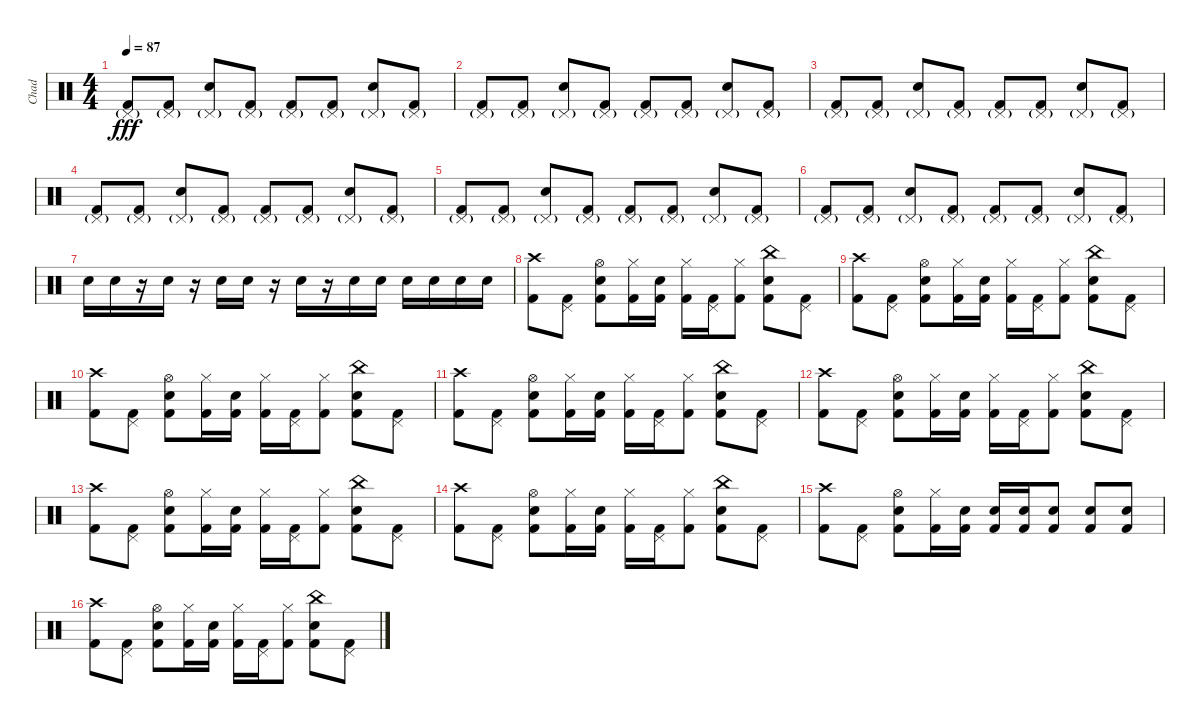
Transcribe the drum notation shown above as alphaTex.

\track ("Chad" "Chad") {instrument percussion}
\staff {score}
\articulation defaults
\ts (4 4)
\tempo 87
\clef neutral
\ks c
("Pedal Hi-Hat (hit)"{g} "Kick (hit) 2").8{dy fff} ("Pedal Hi-Hat (hit)"{g} "Kick (hit) 2").8 ("Pedal Hi-Hat (hit)"{g} "Snare (hit) 2").8 ("Pedal Hi-Hat (hit)"{g} "Kick (hit) 2").8 ("Pedal Hi-Hat (hit)"{g} "Kick (hit) 2").8 ("Pedal Hi-Hat (hit)"{g} "Kick (hit) 2").8 ("Pedal Hi-Hat (hit)"{g} "Snare (hit) 2").8 ("Pedal Hi-Hat (hit)"{g} "Kick (hit) 2").8 |
("Pedal Hi-Hat (hit)"{g} "Kick (hit) 2").8 ("Pedal Hi-Hat (hit)"{g} "Kick (hit) 2").8 ("Pedal Hi-Hat (hit)"{g} "Snare (hit) 2").8 ("Pedal Hi-Hat (hit)"{g} "Kick (hit) 2").8 ("Pedal Hi-Hat (hit)"{g} "Kick (hit) 2").8 ("Pedal Hi-Hat (hit)"{g} "Kick (hit) 2").8 ("Pedal Hi-Hat (hit)"{g} "Snare (hit) 2").8 ("Pedal Hi-Hat (hit)"{g} "Kick (hit) 2").8 |
("Pedal Hi-Hat (hit)"{g} "Kick (hit) 2").8 ("Pedal Hi-Hat (hit)"{g} "Kick (hit) 2").8 ("Pedal Hi-Hat (hit)"{g} "Snare (hit) 2").8 ("Pedal Hi-Hat (hit)"{g} "Kick (hit) 2").8 ("Pedal Hi-Hat (hit)"{g} "Kick (hit) 2").8 ("Pedal Hi-Hat (hit)"{g} "Kick (hit) 2").8 ("Pedal Hi-Hat (hit)"{g} "Snare (hit) 2").8 ("Pedal Hi-Hat (hit)"{g} "Kick (hit) 2").8 |
("Pedal Hi-Hat (hit)"{g} "Kick (hit) 2").8 ("Pedal Hi-Hat (hit)"{g} "Kick (hit) 2").8 ("Pedal Hi-Hat (hit)"{g} "Snare (hit) 2").8 ("Pedal Hi-Hat (hit)"{g} "Kick (hit) 2").8 ("Pedal Hi-Hat (hit)"{g} "Kick (hit) 2").8 ("Pedal Hi-Hat (hit)"{g} "Kick (hit) 2").8 ("Pedal Hi-Hat (hit)"{g} "Snare (hit) 2").8 ("Pedal Hi-Hat (hit)"{g} "Kick (hit) 2").8 |
("Pedal Hi-Hat (hit)"{g} "Kick (hit) 2").8 ("Pedal Hi-Hat (hit)"{g} "Kick (hit) 2").8 ("Pedal Hi-Hat (hit)"{g} "Snare (hit) 2").8 ("Pedal Hi-Hat (hit)"{g} "Kick (hit) 2").8 ("Pedal Hi-Hat (hit)"{g} "Kick (hit) 2").8 ("Pedal Hi-Hat (hit)"{g} "Kick (hit) 2").8 ("Pedal Hi-Hat (hit)"{g} "Snare (hit) 2").8 ("Pedal Hi-Hat (hit)"{g} "Kick (hit) 2").8 |
("Pedal Hi-Hat (hit)"{g} "Kick (hit) 2").8 ("Pedal Hi-Hat (hit)"{g} "Kick (hit) 2").8 ("Pedal Hi-Hat (hit)"{g} "Snare (hit) 2").8 ("Pedal Hi-Hat (hit)"{g} "Kick (hit) 2").8 ("Pedal Hi-Hat (hit)"{g} "Kick (hit) 2").8 ("Pedal Hi-Hat (hit)"{g} "Kick (hit) 2").8 ("Pedal Hi-Hat (hit)"{g} "Snare (hit) 2").8 ("Pedal Hi-Hat (hit)"{g} "Kick (hit) 2").8 |
"Snare (hit) 2".16 "Snare (hit) 2".16 r.16 "Snare (hit) 2".16 r.16 "Snare (hit) 2".16 "Snare (hit) 2".16 r.16 "Snare (hit) 2".16 r.16 "Snare (hit) 2".16 "Snare (hit) 2".16 "Snare (hit) 2".16 "Snare (hit) 2".16 "Snare (hit) 2".16 "Snare (hit) 2".16 |
("Crash high (hit)" "Kick (hit) 2").8 ("Pedal Hi-Hat (hit)" "Kick (hit) 2").8 ("Hi-Hat (open)" "Snare (hit) 2" "Kick (hit) 2").8 ("Hi-Hat (closed)" "Kick (hit) 2").16 ("Snare (hit) 2" "Kick (hit) 2").16 ("Hi-Hat (closed)" "Kick (hit) 2").16 ("Pedal Hi-Hat (hit)" "Kick (hit) 2").16 ("Hi-Hat (closed)" "Kick (hit) 2").8 ("China (hit)" "Snare (hit) 2" "Kick (hit) 2").8 ("Pedal Hi-Hat (hit)" "Kick (hit) 2").8 |
("Crash high (hit)" "Kick (hit) 2").8 ("Pedal Hi-Hat (hit)" "Kick (hit) 2").8 ("Hi-Hat (open)" "Snare (hit) 2" "Kick (hit) 2").8 ("Hi-Hat (closed)" "Kick (hit) 2").16 ("Snare (hit) 2" "Kick (hit) 2").16 ("Hi-Hat (closed)" "Kick (hit) 2").16 ("Pedal Hi-Hat (hit)" "Kick (hit) 2").16 ("Hi-Hat (closed)" "Kick (hit) 2").8 ("China (hit)" "Snare (hit) 2" "Kick (hit) 2").8 ("Pedal Hi-Hat (hit)" "Kick (hit) 2").8 |
("Crash high (hit)" "Kick (hit) 2").8 ("Pedal Hi-Hat (hit)" "Kick (hit) 2").8 ("Hi-Hat (open)" "Snare (hit) 2" "Kick (hit) 2").8 ("Hi-Hat (closed)" "Kick (hit) 2").16 ("Snare (hit) 2" "Kick (hit) 2").16 ("Hi-Hat (closed)" "Kick (hit) 2").16 ("Pedal Hi-Hat (hit)" "Kick (hit) 2").16 ("Hi-Hat (closed)" "Kick (hit) 2").8 ("China (hit)" "Snare (hit) 2" "Kick (hit) 2").8 ("Pedal Hi-Hat (hit)" "Kick (hit) 2").8 |
("Crash high (hit)" "Kick (hit) 2").8 ("Pedal Hi-Hat (hit)" "Kick (hit) 2").8 ("Hi-Hat (open)" "Snare (hit) 2" "Kick (hit) 2").8 ("Hi-Hat (closed)" "Kick (hit) 2").16 ("Snare (hit) 2" "Kick (hit) 2").16 ("Hi-Hat (closed)" "Kick (hit) 2").16 ("Pedal Hi-Hat (hit)" "Kick (hit) 2").16 ("Hi-Hat (closed)" "Kick (hit) 2").8 ("China (hit)" "Snare (hit) 2" "Kick (hit) 2").8 ("Pedal Hi-Hat (hit)" "Kick (hit) 2").8 |
("Crash high (hit)" "Kick (hit) 2").8 ("Pedal Hi-Hat (hit)" "Kick (hit) 2").8 ("Hi-Hat (open)" "Snare (hit) 2" "Kick (hit) 2").8 ("Hi-Hat (closed)" "Kick (hit) 2").16 ("Snare (hit) 2" "Kick (hit) 2").16 ("Hi-Hat (closed)" "Kick (hit) 2").16 ("Pedal Hi-Hat (hit)" "Kick (hit) 2").16 ("Hi-Hat (closed)" "Kick (hit) 2").8 ("China (hit)" "Snare (hit) 2" "Kick (hit) 2").8 ("Pedal Hi-Hat (hit)" "Kick (hit) 2").8 |
("Crash high (hit)" "Kick (hit) 2").8 ("Pedal Hi-Hat (hit)" "Kick (hit) 2").8 ("Hi-Hat (open)" "Snare (hit) 2" "Kick (hit) 2").8 ("Hi-Hat (closed)" "Kick (hit) 2").16 ("Snare (hit) 2" "Kick (hit) 2").16 ("Hi-Hat (closed)" "Kick (hit) 2").16 ("Pedal Hi-Hat (hit)" "Kick (hit) 2").16 ("Hi-Hat (closed)" "Kick (hit) 2").8 ("China (hit)" "Snare (hit) 2" "Kick (hit) 2").8 ("Pedal Hi-Hat (hit)" "Kick (hit) 2").8 |
("Crash high (hit)" "Kick (hit) 2").8 ("Pedal Hi-Hat (hit)" "Kick (hit) 2").8 ("Hi-Hat (open)" "Snare (hit) 2" "Kick (hit) 2").8 ("Hi-Hat (closed)" "Kick (hit) 2").16 ("Snare (hit) 2" "Kick (hit) 2").16 ("Hi-Hat (closed)" "Kick (hit) 2").16 ("Pedal Hi-Hat (hit)" "Kick (hit) 2").16 ("Hi-Hat (closed)" "Kick (hit) 2").8 ("China (hit)" "Snare (hit) 2" "Kick (hit) 2").8 ("Pedal Hi-Hat (hit)" "Kick (hit) 2").8 |
("Crash high (hit)" "Kick (hit) 2").8 ("Pedal Hi-Hat (hit)" "Kick (hit) 2").8 ("Hi-Hat (open)" "Snare (hit) 2" "Kick (hit) 2").8 ("Hi-Hat (closed)" "Kick (hit) 2").16 ("Snare (hit) 2" "Kick (hit) 2").16 ("Snare (hit) 2" "Kick (hit) 2").16 ("Snare (hit) 2" "Kick (hit) 2").16 ("Snare (hit) 2" "Kick (hit) 2").8 ("Snare (hit) 2" "Kick (hit) 2").8 ("Snare (hit) 2" "Kick (hit) 2").8 |
("Crash high (hit)" "Kick (hit) 2").8 ("Pedal Hi-Hat (hit)" "Kick (hit) 2").8 ("Hi-Hat (open)" "Snare (hit) 2" "Kick (hit) 2").8 ("Hi-Hat (closed)" "Kick (hit) 2").16 ("Snare (hit) 2" "Kick (hit) 2").16 ("Hi-Hat (closed)" "Kick (hit) 2").16 ("Pedal Hi-Hat (hit)" "Kick (hit) 2").16 ("Hi-Hat (closed)" "Kick (hit) 2").8 ("China (hit)" "Snare (hit) 2" "Kick (hit) 2").8 ("Pedal Hi-Hat (hit)" "Kick (hit) 2").8
